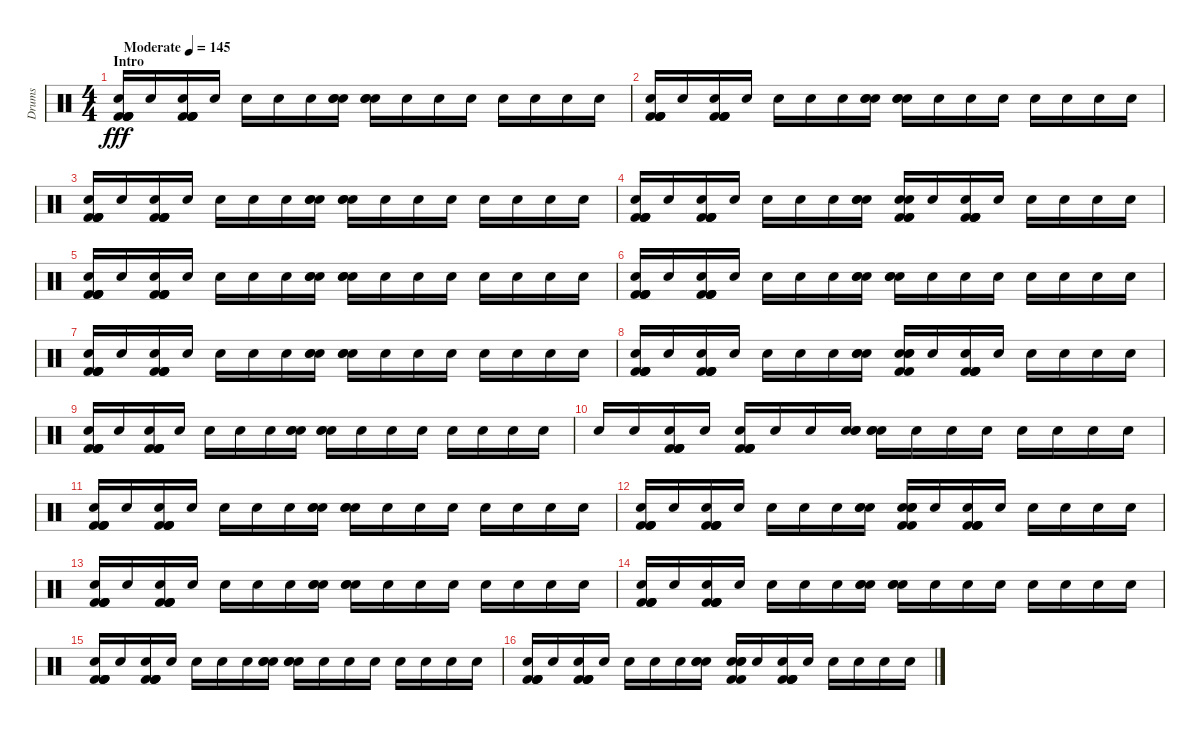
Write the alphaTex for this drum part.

\track ("Drums" "Drums") {instrument percussion}
\staff {score}
\articulation defaults
\ts (4 4)
\section ("" "Intro")
\tempo (145 "Moderate")
\clef neutral
\ks c
("Kick (hit) 2" "Kick (hit) 2" "Kick (hit) 2" "Snare (hit) 2" "Kick (hit) 2").16{dy fff volume 8} "Snare (hit) 2".16 ("Kick (hit) 2" "Kick (hit) 2" "Kick (hit) 2" "Snare (hit) 2" "Kick (hit) 2").16 "Snare (hit) 2".16 "Snare (hit) 2".16 "Snare (hit) 2".16 "Snare (hit) 2".16 ("Electric Snare (hit)" "Snare (hit) 2" "Snare (hit) 2").16 ("Electric Snare (hit)" "Snare (hit) 2" "Snare (hit) 2").16 "Snare (hit) 2".16 "Snare (hit) 2".16 "Snare (hit) 2".16 "Snare (hit) 2".16 "Snare (hit) 2".16 "Snare (hit) 2".16 "Snare (hit) 2".16 |
("Kick (hit) 2" "Kick (hit) 2" "Kick (hit) 2" "Snare (hit) 2" "Kick (hit) 2").16 "Snare (hit) 2".16 ("Kick (hit) 2" "Kick (hit) 2" "Kick (hit) 2" "Snare (hit) 2" "Kick (hit) 2").16 "Snare (hit) 2".16 "Snare (hit) 2".16 "Snare (hit) 2".16 "Snare (hit) 2".16 ("Electric Snare (hit)" "Snare (hit) 2" "Snare (hit) 2").16 ("Electric Snare (hit)" "Snare (hit) 2" "Snare (hit) 2").16 "Snare (hit) 2".16 "Snare (hit) 2".16 "Snare (hit) 2".16 "Snare (hit) 2".16 "Snare (hit) 2".16 "Snare (hit) 2".16 "Snare (hit) 2".16 |
("Kick (hit) 2" "Kick (hit) 2" "Kick (hit) 2" "Snare (hit) 2" "Kick (hit) 2").16 "Snare (hit) 2".16 ("Kick (hit) 2" "Kick (hit) 2" "Kick (hit) 2" "Snare (hit) 2" "Kick (hit) 2").16 "Snare (hit) 2".16 "Snare (hit) 2".16 "Snare (hit) 2".16 "Snare (hit) 2".16 ("Electric Snare (hit)" "Snare (hit) 2" "Snare (hit) 2").16 ("Electric Snare (hit)" "Snare (hit) 2" "Snare (hit) 2").16 "Snare (hit) 2".16 "Snare (hit) 2".16 "Snare (hit) 2".16 "Snare (hit) 2".16 "Snare (hit) 2".16 "Snare (hit) 2".16 "Snare (hit) 2".16 |
("Kick (hit) 2" "Kick (hit) 2" "Kick (hit) 2" "Snare (hit) 2" "Kick (hit) 2").16 "Snare (hit) 2".16 ("Kick (hit) 2" "Kick (hit) 2" "Kick (hit) 2" "Snare (hit) 2" "Kick (hit) 2").16 "Snare (hit) 2".16 "Snare (hit) 2".16 "Snare (hit) 2".16 "Snare (hit) 2".16 ("Electric Snare (hit)" "Snare (hit) 2" "Snare (hit) 2").16 ("Electric Snare (hit)" "Kick (hit) 2" "Kick (hit) 2" "Snare (hit) 2" "Kick (hit) 2").16 "Snare (hit) 2".16 ("Kick (hit) 2" "Kick (hit) 2" "Kick (hit) 2" "Snare (hit) 2" "Kick (hit) 2").16 "Snare (hit) 2".16 "Snare (hit) 2".16 "Snare (hit) 2".16 "Snare (hit) 2".16 "Snare (hit) 2".16 |
("Kick (hit) 2" "Kick (hit) 2" "Kick (hit) 2" "Snare (hit) 2" "Kick (hit) 2").16 "Snare (hit) 2".16 ("Kick (hit) 2" "Kick (hit) 2" "Kick (hit) 2" "Snare (hit) 2" "Kick (hit) 2").16 "Snare (hit) 2".16 "Snare (hit) 2".16 "Snare (hit) 2".16 "Snare (hit) 2".16 ("Electric Snare (hit)" "Snare (hit) 2" "Snare (hit) 2").16 ("Electric Snare (hit)" "Snare (hit) 2" "Snare (hit) 2").16 "Snare (hit) 2".16 "Snare (hit) 2".16 "Snare (hit) 2".16 "Snare (hit) 2".16 "Snare (hit) 2".16 "Snare (hit) 2".16 "Snare (hit) 2".16 |
("Kick (hit) 2" "Kick (hit) 2" "Kick (hit) 2" "Snare (hit) 2" "Kick (hit) 2").16 "Snare (hit) 2".16 ("Kick (hit) 2" "Kick (hit) 2" "Kick (hit) 2" "Snare (hit) 2" "Kick (hit) 2").16 "Snare (hit) 2".16 "Snare (hit) 2".16 "Snare (hit) 2".16 "Snare (hit) 2".16 ("Electric Snare (hit)" "Snare (hit) 2" "Snare (hit) 2").16 ("Electric Snare (hit)" "Snare (hit) 2" "Snare (hit) 2").16 "Snare (hit) 2".16 "Snare (hit) 2".16 "Snare (hit) 2".16 "Snare (hit) 2".16 "Snare (hit) 2".16 "Snare (hit) 2".16 "Snare (hit) 2".16 |
("Kick (hit) 2" "Kick (hit) 2" "Kick (hit) 2" "Snare (hit) 2" "Kick (hit) 2").16 "Snare (hit) 2".16 ("Kick (hit) 2" "Kick (hit) 2" "Kick (hit) 2" "Snare (hit) 2" "Kick (hit) 2").16 "Snare (hit) 2".16 "Snare (hit) 2".16 "Snare (hit) 2".16 "Snare (hit) 2".16 ("Electric Snare (hit)" "Snare (hit) 2" "Snare (hit) 2").16 ("Electric Snare (hit)" "Snare (hit) 2" "Snare (hit) 2").16 "Snare (hit) 2".16 "Snare (hit) 2".16 "Snare (hit) 2".16 "Snare (hit) 2".16 "Snare (hit) 2".16 "Snare (hit) 2".16 "Snare (hit) 2".16 |
("Kick (hit) 2" "Kick (hit) 2" "Kick (hit) 2" "Snare (hit) 2" "Kick (hit) 2").16 "Snare (hit) 2".16 ("Kick (hit) 2" "Kick (hit) 2" "Kick (hit) 2" "Snare (hit) 2" "Kick (hit) 2").16 "Snare (hit) 2".16 "Snare (hit) 2".16 "Snare (hit) 2".16 "Snare (hit) 2".16 ("Electric Snare (hit)" "Snare (hit) 2" "Snare (hit) 2").16 ("Electric Snare (hit)" "Electric Snare (hit)" "Kick (hit) 2" "Snare (hit) 2" "Kick (hit) 2").16 "Snare (hit) 2".16 ("Kick (hit) 2" "Kick (hit) 2" "Kick (hit) 2" "Snare (hit) 2" "Kick (hit) 2").16 "Snare (hit) 2".16 "Snare (hit) 2".16 "Snare (hit) 2".16 "Snare (hit) 2".16 "Snare (hit) 2".16 |
("Kick (hit) 2" "Kick (hit) 2" "Kick (hit) 2" "Snare (hit) 2" "Kick (hit) 2").16 "Snare (hit) 2".16 ("Kick (hit) 2" "Kick (hit) 2" "Kick (hit) 2" "Snare (hit) 2" "Kick (hit) 2").16 "Snare (hit) 2".16 "Snare (hit) 2".16 "Snare (hit) 2".16 "Snare (hit) 2".16 ("Electric Snare (hit)" "Snare (hit) 2" "Snare (hit) 2").16 ("Electric Snare (hit)" "Snare (hit) 2" "Snare (hit) 2").16 "Snare (hit) 2".16 "Snare (hit) 2".16 "Snare (hit) 2".16 "Snare (hit) 2".16 "Snare (hit) 2".16 "Snare (hit) 2".16 "Snare (hit) 2".16 |
"Snare (hit) 2".16 "Snare (hit) 2".16 ("Kick (hit) 2" "Kick (hit) 2" "Kick (hit) 2" "Snare (hit) 2" "Kick (hit) 2").16 "Snare (hit) 2".16 ("Kick (hit) 2" "Kick (hit) 2" "Kick (hit) 2" "Snare (hit) 2" "Kick (hit) 2").16 "Snare (hit) 2".16 "Snare (hit) 2".16 ("Electric Snare (hit)" "Snare (hit) 2" "Snare (hit) 2").16 ("Electric Snare (hit)" "Snare (hit) 2" "Snare (hit) 2").16 "Snare (hit) 2".16 "Snare (hit) 2".16 "Snare (hit) 2".16 "Snare (hit) 2".16 "Snare (hit) 2".16 "Snare (hit) 2".16 "Snare (hit) 2".16 |
("Kick (hit) 2" "Kick (hit) 2" "Kick (hit) 2" "Snare (hit) 2" "Kick (hit) 2").16 "Snare (hit) 2".16 ("Kick (hit) 2" "Kick (hit) 2" "Kick (hit) 2" "Snare (hit) 2" "Kick (hit) 2").16 "Snare (hit) 2".16 "Snare (hit) 2".16 "Snare (hit) 2".16 "Snare (hit) 2".16 ("Electric Snare (hit)" "Snare (hit) 2" "Snare (hit) 2").16 ("Electric Snare (hit)" "Snare (hit) 2" "Snare (hit) 2").16 "Snare (hit) 2".16 "Snare (hit) 2".16 "Snare (hit) 2".16 "Snare (hit) 2".16 "Snare (hit) 2".16 "Snare (hit) 2".16 "Snare (hit) 2".16 |
("Kick (hit) 2" "Kick (hit) 2" "Kick (hit) 2" "Snare (hit) 2" "Kick (hit) 2").16 "Snare (hit) 2".16 ("Kick (hit) 2" "Kick (hit) 2" "Kick (hit) 2" "Snare (hit) 2" "Kick (hit) 2").16 "Snare (hit) 2".16 "Snare (hit) 2".16 "Snare (hit) 2".16 "Snare (hit) 2".16 ("Electric Snare (hit)" "Snare (hit) 2" "Snare (hit) 2").16 ("Electric Snare (hit)" "Electric Snare (hit)" "Kick (hit) 2" "Snare (hit) 2" "Kick (hit) 2").16 "Snare (hit) 2".16 ("Kick (hit) 2" "Kick (hit) 2" "Kick (hit) 2" "Snare (hit) 2" "Kick (hit) 2").16 "Snare (hit) 2".16 "Snare (hit) 2".16 "Snare (hit) 2".16 "Snare (hit) 2".16 "Snare (hit) 2".16 |
("Kick (hit) 2" "Kick (hit) 2" "Kick (hit) 2" "Snare (hit) 2" "Kick (hit) 2").16 "Snare (hit) 2".16 ("Kick (hit) 2" "Kick (hit) 2" "Kick (hit) 2" "Snare (hit) 2" "Kick (hit) 2").16 "Snare (hit) 2".16 "Snare (hit) 2".16 "Snare (hit) 2".16 "Snare (hit) 2".16 ("Electric Snare (hit)" "Snare (hit) 2" "Snare (hit) 2").16 ("Electric Snare (hit)" "Snare (hit) 2" "Snare (hit) 2").16 "Snare (hit) 2".16 "Snare (hit) 2".16 "Snare (hit) 2".16 "Snare (hit) 2".16 "Snare (hit) 2".16 "Snare (hit) 2".16 "Snare (hit) 2".16 |
("Kick (hit) 2" "Kick (hit) 2" "Kick (hit) 2" "Snare (hit) 2" "Kick (hit) 2").16 "Snare (hit) 2".16 ("Kick (hit) 2" "Kick (hit) 2" "Kick (hit) 2" "Snare (hit) 2" "Kick (hit) 2").16 "Snare (hit) 2".16 "Snare (hit) 2".16 "Snare (hit) 2".16 "Snare (hit) 2".16 ("Electric Snare (hit)" "Snare (hit) 2" "Snare (hit) 2").16 ("Electric Snare (hit)" "Snare (hit) 2" "Snare (hit) 2").16 "Snare (hit) 2".16 "Snare (hit) 2".16 "Snare (hit) 2".16 "Snare (hit) 2".16 "Snare (hit) 2".16 "Snare (hit) 2".16 "Snare (hit) 2".16 |
("Kick (hit) 2" "Kick (hit) 2" "Kick (hit) 2" "Snare (hit) 2" "Kick (hit) 2").16 "Snare (hit) 2".16 ("Kick (hit) 2" "Kick (hit) 2" "Kick (hit) 2" "Snare (hit) 2" "Kick (hit) 2").16 "Snare (hit) 2".16 "Snare (hit) 2".16 "Snare (hit) 2".16 "Snare (hit) 2".16 ("Electric Snare (hit)" "Snare (hit) 2" "Snare (hit) 2").16 ("Electric Snare (hit)" "Snare (hit) 2" "Snare (hit) 2").16 "Snare (hit) 2".16 "Snare (hit) 2".16 "Snare (hit) 2".16 "Snare (hit) 2".16 "Snare (hit) 2".16 "Snare (hit) 2".16 "Snare (hit) 2".16 |
("Kick (hit) 2" "Kick (hit) 2" "Kick (hit) 2" "Snare (hit) 2" "Kick (hit) 2").16 "Snare (hit) 2".16 ("Kick (hit) 2" "Kick (hit) 2" "Kick (hit) 2" "Snare (hit) 2" "Kick (hit) 2").16 "Snare (hit) 2".16 "Snare (hit) 2".16 "Snare (hit) 2".16 "Snare (hit) 2".16 ("Electric Snare (hit)" "Snare (hit) 2" "Snare (hit) 2").16 ("Electric Snare (hit)" "Electric Snare (hit)" "Kick (hit) 2" "Snare (hit) 2" "Kick (hit) 2").16 "Snare (hit) 2".16 ("Kick (hit) 2" "Kick (hit) 2" "Kick (hit) 2" "Snare (hit) 2" "Kick (hit) 2").16 "Snare (hit) 2".16 "Snare (hit) 2".16 "Snare (hit) 2".16 "Snare (hit) 2".16 "Snare (hit) 2".16
